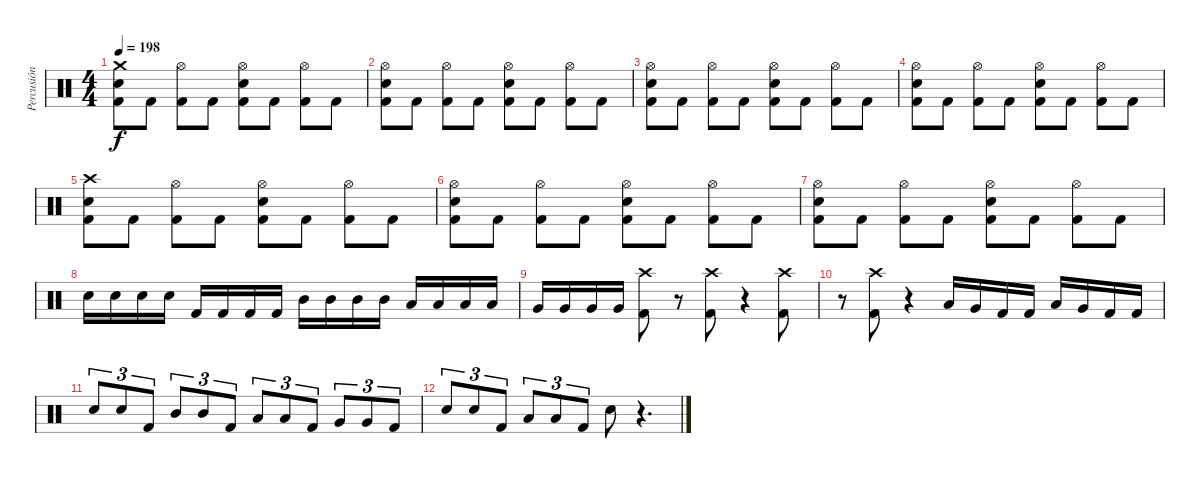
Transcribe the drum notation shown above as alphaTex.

\track ("Percusión" "Percusión") {instrument percussion}
\staff {score}
\articulation defaults
\ts (4 4)
\tempo 198
\clef neutral
\ks c
("Crash medium (hit)" "Electric Snare (hit)" "Kick (hit) 2").8{dy f} "Kick (hit) 2".8 ("Hi-Hat (open)" "Kick (hit) 2").8 "Kick (hit) 2".8 ("Hi-Hat (open)" "Electric Snare (hit)" "Kick (hit) 2").8 "Kick (hit) 2".8 ("Hi-Hat (open)" "Kick (hit) 2").8 "Kick (hit) 2".8 |
("Hi-Hat (open)" "Electric Snare (hit)" "Kick (hit) 2").8 "Kick (hit) 2".8 ("Hi-Hat (open)" "Kick (hit) 2").8 "Kick (hit) 2".8 ("Hi-Hat (open)" "Electric Snare (hit)" "Kick (hit) 2").8 "Kick (hit) 2".8 ("Hi-Hat (open)" "Kick (hit) 2").8 "Kick (hit) 2".8 |
("Hi-Hat (open)" "Electric Snare (hit)" "Kick (hit) 2").8 "Kick (hit) 2".8 ("Hi-Hat (open)" "Kick (hit) 2").8 "Kick (hit) 2".8 ("Hi-Hat (open)" "Electric Snare (hit)" "Kick (hit) 2").8 "Kick (hit) 2".8 ("Hi-Hat (open)" "Kick (hit) 2").8 "Kick (hit) 2".8 |
("Hi-Hat (open)" "Electric Snare (hit)" "Kick (hit) 2").8 "Kick (hit) 2".8 ("Hi-Hat (open)" "Kick (hit) 2").8 "Kick (hit) 2".8 ("Hi-Hat (open)" "Electric Snare (hit)" "Kick (hit) 2").8 "Kick (hit) 2".8 ("Hi-Hat (open)" "Kick (hit) 2").8 "Kick (hit) 2".8 |
("Crash high (hit)" "Electric Snare (hit)" "Kick (hit) 2").8 "Kick (hit) 2".8 ("Hi-Hat (open)" "Kick (hit) 2").8 "Kick (hit) 2".8 ("Hi-Hat (open)" "Electric Snare (hit)" "Kick (hit) 2").8 "Kick (hit) 2".8 ("Hi-Hat (open)" "Kick (hit) 2").8 "Kick (hit) 2".8 |
("Hi-Hat (open)" "Electric Snare (hit)" "Kick (hit) 2").8 "Kick (hit) 2".8 ("Hi-Hat (open)" "Kick (hit) 2").8 "Kick (hit) 2".8 ("Hi-Hat (open)" "Electric Snare (hit)" "Kick (hit) 2").8 "Kick (hit) 2".8 ("Hi-Hat (open)" "Kick (hit) 2").8 "Kick (hit) 2".8 |
("Hi-Hat (open)" "Electric Snare (hit)" "Kick (hit) 2").8 "Kick (hit) 2".8 ("Hi-Hat (open)" "Kick (hit) 2").8 "Kick (hit) 2".8 ("Hi-Hat (open)" "Electric Snare (hit)" "Kick (hit) 2").8 "Kick (hit) 2".8 ("Hi-Hat (open)" "Kick (hit) 2").8 "Kick (hit) 2".8 |
"Electric Snare (hit)".16 "Electric Snare (hit)".16 "Electric Snare (hit)".16 "Electric Snare (hit)".16 "Kick (hit) 2".16 "Kick (hit) 2".16 "Kick (hit) 2".16 "Kick (hit) 2".16 "Mid Tom (hit)".16 "Mid Tom (hit)".16 "Mid Tom (hit)".16 "Mid Tom (hit)".16 "Low Tom (hit)".16 "Low Tom (hit)".16 "Low Tom (hit)".16 "Low Tom (hit)".16 |
"Very Low Tom (hit)".16 "Very Low Tom (hit)".16 "Very Low Tom (hit)".16 "Very Low Tom (hit)".16 ("Crash high (hit)" "Kick (hit) 2").8 r.8{volume 0} ("Crash high (hit)" "Kick (hit) 2").8{volume 16} r.4{volume 0} ("Crash high (hit)" "Kick (hit) 2").8{volume 16} |
r.8{volume 0} ("Crash high (hit)" "Kick (hit) 2").8{volume 16} r.4{volume 0} "Low Tom (hit)".16{volume 16} "Very Low Tom (hit)".16 "Kick (hit) 2".16 "Kick (hit) 2".16 "Low Tom (hit)".16 "Very Low Tom (hit)".16 "Kick (hit) 2".16 "Kick (hit) 2".16 |
"Electric Snare (hit)".8{tu (3 2)} "Electric Snare (hit)".8{tu (3 2)} "Kick (hit) 2".8{tu (3 2)} "Mid Tom (hit)".8{tu (3 2)} "Mid Tom (hit)".8{tu (3 2)} "Kick (hit) 2".8{tu (3 2)} "Low Tom (hit)".8{tu (3 2)} "Low Tom (hit)".8{tu (3 2)} "Kick (hit) 2".8{tu (3 2)} "Very Low Tom (hit)".8{tu (3 2)} "Very Low Tom (hit)".8{tu (3 2)} "Kick (hit) 2".8{tu (3 2)} |
"Electric Snare (hit)".8{tu (3 2)} "Electric Snare (hit)".8{tu (3 2)} "Kick (hit) 2".8{tu (3 2)} "Low Tom (hit)".8{tu (3 2)} "Low Tom (hit)".8{tu (3 2)} "Kick (hit) 2".8{tu (3 2)} "Electric Snare (hit)".8 r.4{d}
